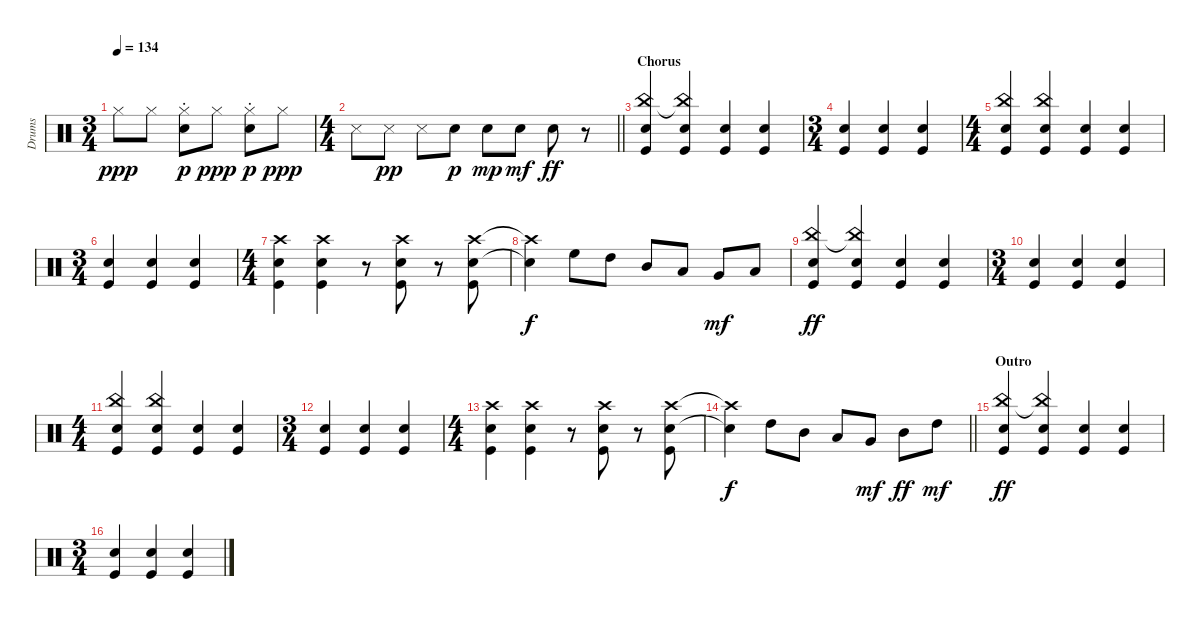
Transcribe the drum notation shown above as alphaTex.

\track ("Drums" "Drums") {instrument percussion}
\staff {score}
\articulation defaults
\ts (3 4)
\tempo 134
\clef neutral
\ks c "Hi-Hat (closed)".8{dy ppp} "Hi-Hat (closed)".8
("Hi-Hat (closed)" "Snare (hit) 2"{st}).8{dy p} "Hi-Hat (closed)".8{dy ppp} ("Hi-Hat (closed)" "Snare (hit) 2"{st}).8{dy p} "Hi-Hat (closed)".8{dy ppp} |
\ts (4 4)
\barLineRight lightlight "Snare (side stick) 3".8 "Snare (side stick) 3".8{dy pp} "Snare (side stick) 3".8 "Snare (hit) 2".8{dy p} "Snare (hit) 2".8{dy mp} "Snare (hit) 2".8{dy mf} "Snare (hit) 2".8{dy ff}
r.8 |
\section ("" "Chorus")
("China (hit)" "Snare (hit) 2" "Kick (hit)").4 ("China (hit)"{t} "Snare (hit) 2" "Kick (hit)").4 ("Snare (hit) 2" "Kick (hit)").4 ("Snare (hit) 2" "Kick (hit)").4 |
\ts (3 4)
("Snare (hit) 2" "Kick (hit)").4 ("Snare (hit) 2" "Kick (hit)").4 ("Snare (hit) 2" "Kick (hit)").4 |
\ts (4 4)
("China (hit)" "Snare (hit) 2" "Kick (hit)").4 ("China (hit)" "Snare (hit) 2" "Kick (hit)").4 ("Snare (hit) 2" "Kick (hit)").4 ("Snare (hit) 2" "Kick (hit)").4 |
\ts (3 4)
("Snare (hit) 2" "Kick (hit)").4 ("Snare (hit) 2" "Kick (hit)").4 ("Snare (hit) 2" "Kick (hit)").4 |
\ts (4 4)
("Crash high (hit)" "Snare (hit) 2" "Kick (hit)").4 ("Crash high (hit)" "Snare (hit) 2" "Kick (hit)").4 r.8 ("Crash high (hit)" "Snare (hit) 2" "Kick (hit)").8 r.8 ("Crash high (hit)" "Snare (hit) 2" "Kick (hit)").8 |
("Crash high (hit)"{t} "Snare (hit) 2"{t}).4{dy f} "High Floor Tom (hit)".8 "High Tom (hit)".8 "Mid Tom (hit)".8 "Low Tom (hit)".8 "Very Low Tom (hit)".8{dy mf} "Low Floor Tom (hit)".8 |
("China (hit)" "Snare (hit) 2" "Kick (hit)").4{dy ff} ("China (hit)"{t} "Snare (hit) 2" "Kick (hit)").4 ("Snare (hit) 2" "Kick (hit)").4 ("Snare (hit) 2" "Kick (hit)").4 |
\ts (3 4)
("Snare (hit) 2" "Kick (hit)").4 ("Snare (hit) 2" "Kick (hit)").4 ("Snare (hit) 2" "Kick (hit)").4 |
\ts (4 4)
("China (hit)" "Snare (hit) 2" "Kick (hit)").4 ("China (hit)" "Snare (hit) 2" "Kick (hit)").4 ("Snare (hit) 2" "Kick (hit)").4 ("Snare (hit) 2" "Kick (hit)").4 |
\ts (3 4)
("Snare (hit) 2" "Kick (hit)").4 ("Snare (hit) 2" "Kick (hit)").4 ("Snare (hit) 2" "Kick (hit)").4 |
\ts (4 4)
("Crash high (hit)" "Snare (hit) 2" "Kick (hit)").4 ("Crash high (hit)" "Snare (hit) 2" "Kick (hit)").4 r.8 ("Crash high (hit)" "Snare (hit) 2" "Kick (hit)").8 r.8 ("Crash high (hit)" "Snare (hit) 2" "Kick (hit)").8 |
\barLineRight lightlight
("Crash high (hit)"{t} "Snare (hit) 2"{t}).4{dy f} "High Tom (hit)".8 "Mid Tom (hit)".8 "Low Tom (hit)".8 "Very Low Tom (hit)".8{dy mf} "Mid Tom (hit)".8{dy ff} "High Tom (hit)".8{dy mf} |
\section ("" "Outro")
("China (hit)" "Snare (hit) 2" "Kick (hit)").4{dy ff} ("China (hit)"{t} "Snare (hit) 2" "Kick (hit)").4 ("Snare (hit) 2" "Kick (hit)").4 ("Snare (hit) 2" "Kick (hit)").4 |
\ts (3 4)
("Snare (hit) 2" "Kick (hit)").4 ("Snare (hit) 2" "Kick (hit)").4 ("Snare (hit) 2" "Kick (hit)").4
